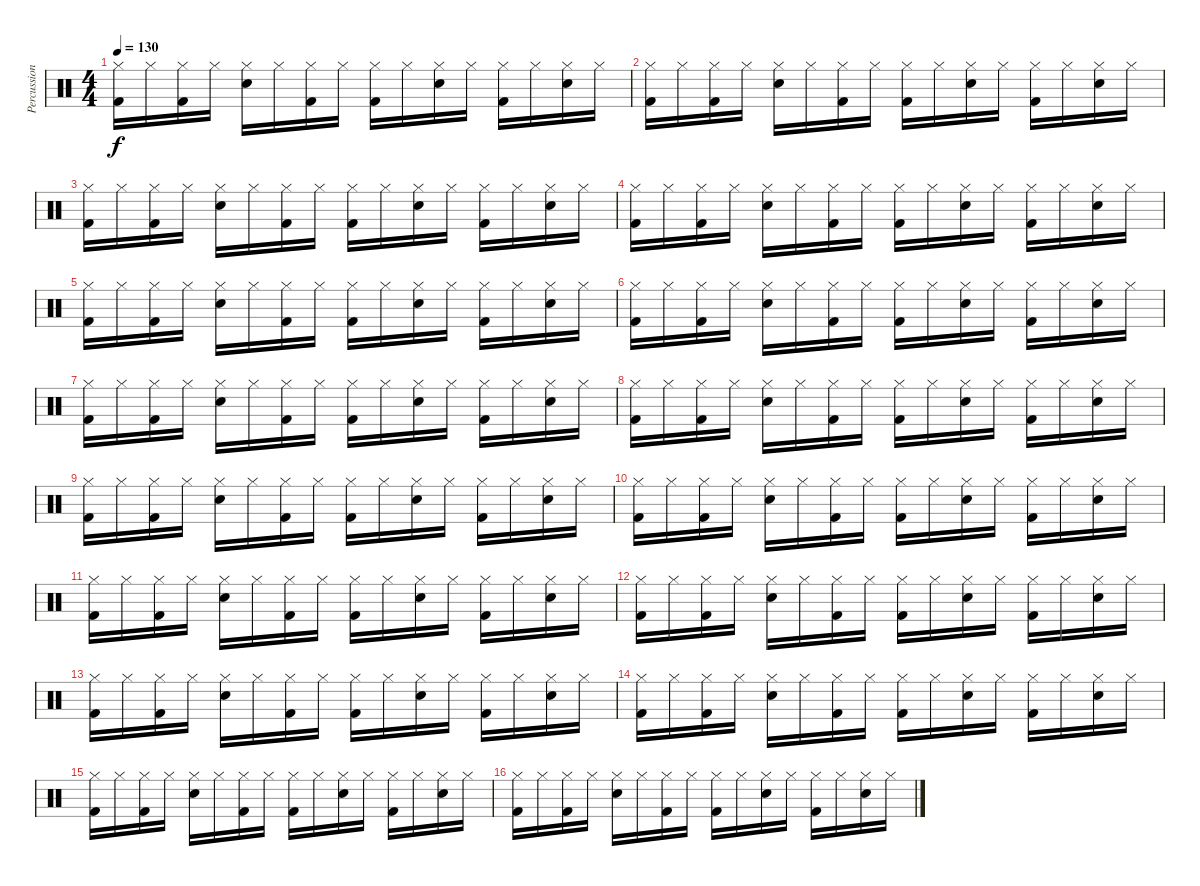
\track ("Percussion" "Percussion") {instrument percussion}
\staff {score}
\articulation defaults
\ts (4 4)
\tempo 130
\clef neutral
\ks c
("Hi-Hat (closed)" "Kick (hit) 2").16{dy f} "Hi-Hat (closed)".16 ("Hi-Hat (closed)" "Kick (hit) 2").16 "Hi-Hat (closed)".16 ("Hi-Hat (closed)" "Snare (hit) 2").16 "Hi-Hat (closed)".16 ("Hi-Hat (closed)" "Kick (hit) 2").16 "Hi-Hat (closed)".16 ("Hi-Hat (closed)" "Kick (hit) 2").16 "Hi-Hat (closed)".16 ("Hi-Hat (closed)" "Snare (hit) 2").16 "Hi-Hat (closed)".16 ("Hi-Hat (closed)" "Kick (hit) 2").16 "Hi-Hat (closed)".16 ("Hi-Hat (closed)" "Snare (hit) 2").16 "Hi-Hat (closed)".16 |
("Hi-Hat (closed)" "Kick (hit) 2").16 "Hi-Hat (closed)".16 ("Hi-Hat (closed)" "Kick (hit) 2").16 "Hi-Hat (closed)".16 ("Hi-Hat (closed)" "Snare (hit) 2").16 "Hi-Hat (closed)".16 ("Hi-Hat (closed)" "Kick (hit) 2").16 "Hi-Hat (closed)".16 ("Hi-Hat (closed)" "Kick (hit) 2").16 "Hi-Hat (closed)".16 ("Hi-Hat (closed)" "Snare (hit) 2").16 "Hi-Hat (closed)".16 ("Hi-Hat (closed)" "Kick (hit) 2").16 "Hi-Hat (closed)".16 ("Hi-Hat (closed)" "Snare (hit) 2").16 "Hi-Hat (closed)".16 |
("Hi-Hat (closed)" "Kick (hit) 2").16 "Hi-Hat (closed)".16 ("Hi-Hat (closed)" "Kick (hit) 2").16 "Hi-Hat (closed)".16 ("Hi-Hat (closed)" "Snare (hit) 2").16 "Hi-Hat (closed)".16 ("Hi-Hat (closed)" "Kick (hit) 2").16 "Hi-Hat (closed)".16 ("Hi-Hat (closed)" "Kick (hit) 2").16 "Hi-Hat (closed)".16 ("Hi-Hat (closed)" "Snare (hit) 2").16 "Hi-Hat (closed)".16 ("Hi-Hat (closed)" "Kick (hit) 2").16 "Hi-Hat (closed)".16 ("Hi-Hat (closed)" "Snare (hit) 2").16 "Hi-Hat (closed)".16 |
("Hi-Hat (closed)" "Kick (hit) 2").16 "Hi-Hat (closed)".16 ("Hi-Hat (closed)" "Kick (hit) 2").16 "Hi-Hat (closed)".16 ("Hi-Hat (closed)" "Snare (hit) 2").16 "Hi-Hat (closed)".16 ("Hi-Hat (closed)" "Kick (hit) 2").16 "Hi-Hat (closed)".16 ("Hi-Hat (closed)" "Kick (hit) 2").16 "Hi-Hat (closed)".16 ("Hi-Hat (closed)" "Snare (hit) 2").16 "Hi-Hat (closed)".16 ("Hi-Hat (closed)" "Kick (hit) 2").16 "Hi-Hat (closed)".16 ("Hi-Hat (closed)" "Snare (hit) 2").16 "Hi-Hat (closed)".16 |
("Hi-Hat (closed)" "Kick (hit) 2").16 "Hi-Hat (closed)".16 ("Hi-Hat (closed)" "Kick (hit) 2").16 "Hi-Hat (closed)".16 ("Hi-Hat (closed)" "Snare (hit) 2").16 "Hi-Hat (closed)".16 ("Hi-Hat (closed)" "Kick (hit) 2").16 "Hi-Hat (closed)".16 ("Hi-Hat (closed)" "Kick (hit) 2").16 "Hi-Hat (closed)".16 ("Hi-Hat (closed)" "Snare (hit) 2").16 "Hi-Hat (closed)".16 ("Hi-Hat (closed)" "Kick (hit) 2").16 "Hi-Hat (closed)".16 ("Hi-Hat (closed)" "Snare (hit) 2").16 "Hi-Hat (closed)".16 |
("Hi-Hat (closed)" "Kick (hit) 2").16 "Hi-Hat (closed)".16 ("Hi-Hat (closed)" "Kick (hit) 2").16 "Hi-Hat (closed)".16 ("Hi-Hat (closed)" "Snare (hit) 2").16 "Hi-Hat (closed)".16 ("Hi-Hat (closed)" "Kick (hit) 2").16 "Hi-Hat (closed)".16 ("Hi-Hat (closed)" "Kick (hit) 2").16 "Hi-Hat (closed)".16 ("Hi-Hat (closed)" "Snare (hit) 2").16 "Hi-Hat (closed)".16 ("Hi-Hat (closed)" "Kick (hit) 2").16 "Hi-Hat (closed)".16 ("Hi-Hat (closed)" "Snare (hit) 2").16 "Hi-Hat (closed)".16 |
("Hi-Hat (closed)" "Kick (hit) 2").16 "Hi-Hat (closed)".16 ("Hi-Hat (closed)" "Kick (hit) 2").16 "Hi-Hat (closed)".16 ("Hi-Hat (closed)" "Snare (hit) 2").16 "Hi-Hat (closed)".16 ("Hi-Hat (closed)" "Kick (hit) 2").16 "Hi-Hat (closed)".16 ("Hi-Hat (closed)" "Kick (hit) 2").16 "Hi-Hat (closed)".16 ("Hi-Hat (closed)" "Snare (hit) 2").16 "Hi-Hat (closed)".16 ("Hi-Hat (closed)" "Kick (hit) 2").16 "Hi-Hat (closed)".16 ("Hi-Hat (closed)" "Snare (hit) 2").16 "Hi-Hat (closed)".16 |
("Hi-Hat (closed)" "Kick (hit) 2").16 "Hi-Hat (closed)".16 ("Hi-Hat (closed)" "Kick (hit) 2").16 "Hi-Hat (closed)".16 ("Hi-Hat (closed)" "Snare (hit) 2").16 "Hi-Hat (closed)".16 ("Hi-Hat (closed)" "Kick (hit) 2").16 "Hi-Hat (closed)".16 ("Hi-Hat (closed)" "Kick (hit) 2").16 "Hi-Hat (closed)".16 ("Hi-Hat (closed)" "Snare (hit) 2").16 "Hi-Hat (closed)".16 ("Hi-Hat (closed)" "Kick (hit) 2").16 "Hi-Hat (closed)".16 ("Hi-Hat (closed)" "Snare (hit) 2").16 "Hi-Hat (closed)".16 |
("Hi-Hat (closed)" "Kick (hit) 2").16 "Hi-Hat (closed)".16 ("Hi-Hat (closed)" "Kick (hit) 2").16 "Hi-Hat (closed)".16 ("Hi-Hat (closed)" "Snare (hit) 2").16 "Hi-Hat (closed)".16 ("Hi-Hat (closed)" "Kick (hit) 2").16 "Hi-Hat (closed)".16 ("Hi-Hat (closed)" "Kick (hit) 2").16 "Hi-Hat (closed)".16 ("Hi-Hat (closed)" "Snare (hit) 2").16 "Hi-Hat (closed)".16 ("Hi-Hat (closed)" "Kick (hit) 2").16 "Hi-Hat (closed)".16 ("Hi-Hat (closed)" "Snare (hit) 2").16 "Hi-Hat (closed)".16 |
("Hi-Hat (closed)" "Kick (hit) 2").16 "Hi-Hat (closed)".16 ("Hi-Hat (closed)" "Kick (hit) 2").16 "Hi-Hat (closed)".16 ("Hi-Hat (closed)" "Snare (hit) 2").16 "Hi-Hat (closed)".16 ("Hi-Hat (closed)" "Kick (hit) 2").16 "Hi-Hat (closed)".16 ("Hi-Hat (closed)" "Kick (hit) 2").16 "Hi-Hat (closed)".16 ("Hi-Hat (closed)" "Snare (hit) 2").16 "Hi-Hat (closed)".16 ("Hi-Hat (closed)" "Kick (hit) 2").16 "Hi-Hat (closed)".16 ("Hi-Hat (closed)" "Snare (hit) 2").16 "Hi-Hat (closed)".16 |
("Hi-Hat (closed)" "Kick (hit) 2").16 "Hi-Hat (closed)".16 ("Hi-Hat (closed)" "Kick (hit) 2").16 "Hi-Hat (closed)".16 ("Hi-Hat (closed)" "Snare (hit) 2").16 "Hi-Hat (closed)".16 ("Hi-Hat (closed)" "Kick (hit) 2").16 "Hi-Hat (closed)".16 ("Hi-Hat (closed)" "Kick (hit) 2").16 "Hi-Hat (closed)".16 ("Hi-Hat (closed)" "Snare (hit) 2").16 "Hi-Hat (closed)".16 ("Hi-Hat (closed)" "Kick (hit) 2").16 "Hi-Hat (closed)".16 ("Hi-Hat (closed)" "Snare (hit) 2").16 "Hi-Hat (closed)".16 |
("Hi-Hat (closed)" "Kick (hit) 2").16 "Hi-Hat (closed)".16 ("Hi-Hat (closed)" "Kick (hit) 2").16 "Hi-Hat (closed)".16 ("Hi-Hat (closed)" "Snare (hit) 2").16 "Hi-Hat (closed)".16 ("Hi-Hat (closed)" "Kick (hit) 2").16 "Hi-Hat (closed)".16 ("Hi-Hat (closed)" "Kick (hit) 2").16 "Hi-Hat (closed)".16 ("Hi-Hat (closed)" "Snare (hit) 2").16 "Hi-Hat (closed)".16 ("Hi-Hat (closed)" "Kick (hit) 2").16 "Hi-Hat (closed)".16 ("Hi-Hat (closed)" "Snare (hit) 2").16 "Hi-Hat (closed)".16 |
("Hi-Hat (closed)" "Kick (hit) 2").16 "Hi-Hat (closed)".16 ("Hi-Hat (closed)" "Kick (hit) 2").16 "Hi-Hat (closed)".16 ("Hi-Hat (closed)" "Snare (hit) 2").16 "Hi-Hat (closed)".16 ("Hi-Hat (closed)" "Kick (hit) 2").16 "Hi-Hat (closed)".16 ("Hi-Hat (closed)" "Kick (hit) 2").16 "Hi-Hat (closed)".16 ("Hi-Hat (closed)" "Snare (hit) 2").16 "Hi-Hat (closed)".16 ("Hi-Hat (closed)" "Kick (hit) 2").16 "Hi-Hat (closed)".16 ("Hi-Hat (closed)" "Snare (hit) 2").16 "Hi-Hat (closed)".16 |
("Hi-Hat (closed)" "Kick (hit) 2").16 "Hi-Hat (closed)".16 ("Hi-Hat (closed)" "Kick (hit) 2").16 "Hi-Hat (closed)".16 ("Hi-Hat (closed)" "Snare (hit) 2").16 "Hi-Hat (closed)".16 ("Hi-Hat (closed)" "Kick (hit) 2").16 "Hi-Hat (closed)".16 ("Hi-Hat (closed)" "Kick (hit) 2").16 "Hi-Hat (closed)".16 ("Hi-Hat (closed)" "Snare (hit) 2").16 "Hi-Hat (closed)".16 ("Hi-Hat (closed)" "Kick (hit) 2").16 "Hi-Hat (closed)".16 ("Hi-Hat (closed)" "Snare (hit) 2").16 "Hi-Hat (closed)".16 |
("Hi-Hat (closed)" "Kick (hit) 2").16 "Hi-Hat (closed)".16 ("Hi-Hat (closed)" "Kick (hit) 2").16 "Hi-Hat (closed)".16 ("Hi-Hat (closed)" "Snare (hit) 2").16 "Hi-Hat (closed)".16 ("Hi-Hat (closed)" "Kick (hit) 2").16 "Hi-Hat (closed)".16 ("Hi-Hat (closed)" "Kick (hit) 2").16 "Hi-Hat (closed)".16 ("Hi-Hat (closed)" "Snare (hit) 2").16 "Hi-Hat (closed)".16 ("Hi-Hat (closed)" "Kick (hit) 2").16 "Hi-Hat (closed)".16 ("Hi-Hat (closed)" "Snare (hit) 2").16 "Hi-Hat (closed)".16 |
("Hi-Hat (closed)" "Kick (hit) 2").16 "Hi-Hat (closed)".16 ("Hi-Hat (closed)" "Kick (hit) 2").16 "Hi-Hat (closed)".16 ("Hi-Hat (closed)" "Snare (hit) 2").16 "Hi-Hat (closed)".16 ("Hi-Hat (closed)" "Kick (hit) 2").16 "Hi-Hat (closed)".16 ("Hi-Hat (closed)" "Kick (hit) 2").16 "Hi-Hat (closed)".16 ("Hi-Hat (closed)" "Snare (hit) 2").16 "Hi-Hat (closed)".16 ("Hi-Hat (closed)" "Kick (hit) 2").16 "Hi-Hat (closed)".16 ("Hi-Hat (closed)" "Snare (hit) 2").16 "Hi-Hat (closed)".16
